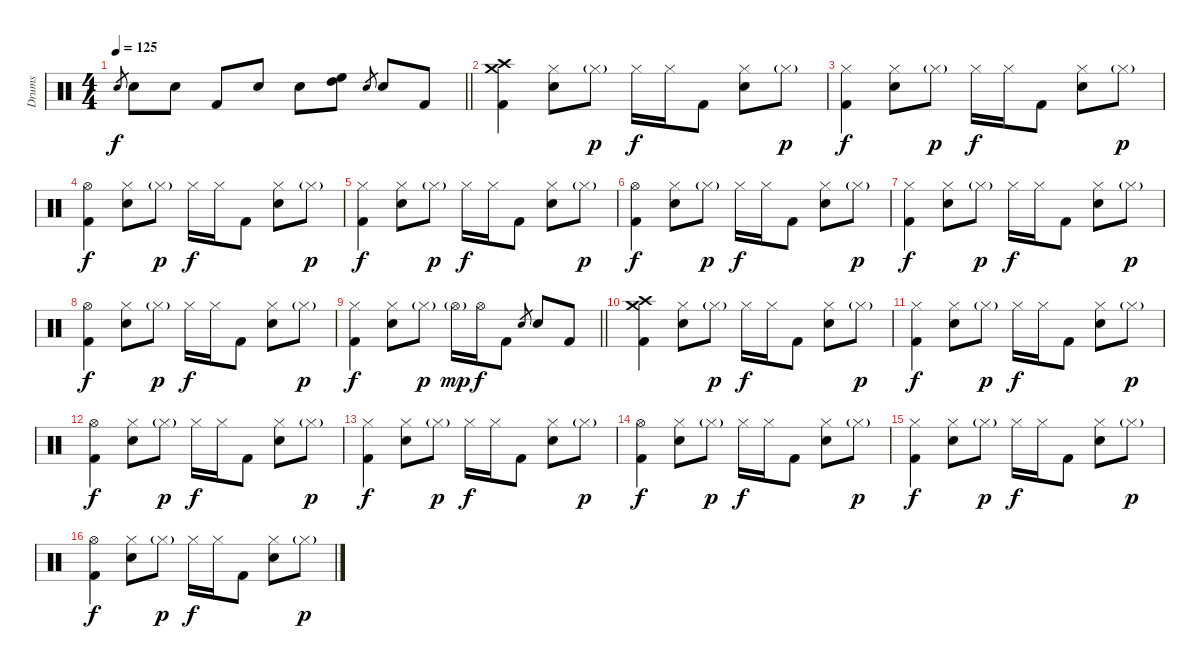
\track ("Drums" "Drums") {instrument percussion}
\staff {score}
\articulation defaults
\ts (4 4)
\tempo 125
\clef neutral
\barLineRight lightlight
\ks c "Electric Snare (hit)".8{gr dy f} "Electric Snare (hit)".8 "Electric Snare (hit)".8 "Kick (hit) 2".8 "Electric Snare (hit)".8 "Electric Snare (hit)".8
("High Floor Tom (hit)" "High Tom (hit)").8 "Electric Snare (hit)".8{gr} "Electric Snare (hit)".8 "Kick (hit) 2".8 |
("Crash high (hit)" "Crash medium (hit)" "Kick (hit) 2").4 ("Hi-Hat (closed)" "Electric Snare (hit)").8 "Hi-Hat (closed)"{g}.8{dy p} "Hi-Hat (closed)".16{dy f} "Hi-Hat (closed)".16 "Kick (hit) 2".8 ("Hi-Hat (closed)" "Electric Snare (hit)").8 "Hi-Hat (closed)"{g}.8{dy p} |
("Hi-Hat (closed)" "Kick (hit) 2").4{dy f} ("Hi-Hat (closed)" "Electric Snare (hit)").8 "Hi-Hat (closed)"{g}.8{dy p} "Hi-Hat (closed)".16{dy f} "Hi-Hat (closed)".16 "Kick (hit) 2".8 ("Hi-Hat (closed)" "Electric Snare (hit)").8 "Hi-Hat (closed)"{g}.8{dy p} |
("Hi-Hat (open)" "Kick (hit) 2").4{dy f} ("Hi-Hat (closed)" "Electric Snare (hit)").8 "Hi-Hat (closed)"{g}.8{dy p} "Hi-Hat (closed)".16{dy f} "Hi-Hat (closed)".16 "Kick (hit) 2".8 ("Hi-Hat (closed)" "Electric Snare (hit)").8 "Hi-Hat (closed)"{g}.8{dy p} |
("Hi-Hat (closed)" "Kick (hit) 2").4{dy f} ("Hi-Hat (closed)" "Electric Snare (hit)").8 "Hi-Hat (closed)"{g}.8{dy p} "Hi-Hat (closed)".16{dy f} "Hi-Hat (closed)".16 "Kick (hit) 2".8 ("Hi-Hat (closed)" "Electric Snare (hit)").8 "Hi-Hat (closed)"{g}.8{dy p} |
("Hi-Hat (open)" "Kick (hit) 2").4{dy f} ("Hi-Hat (closed)" "Electric Snare (hit)").8 "Hi-Hat (closed)"{g}.8{dy p} "Hi-Hat (closed)".16{dy f} "Hi-Hat (closed)".16 "Kick (hit) 2".8 ("Hi-Hat (closed)" "Electric Snare (hit)").8 "Hi-Hat (closed)"{g}.8{dy p} |
("Hi-Hat (closed)" "Kick (hit) 2").4{dy f} ("Hi-Hat (closed)" "Electric Snare (hit)").8 "Hi-Hat (closed)"{g}.8{dy p} "Hi-Hat (closed)".16{dy f} "Hi-Hat (closed)".16 "Kick (hit) 2".8 ("Hi-Hat (closed)" "Electric Snare (hit)").8 "Hi-Hat (closed)"{g}.8{dy p} |
("Hi-Hat (open)" "Kick (hit) 2").4{dy f} ("Hi-Hat (closed)" "Electric Snare (hit)").8 "Hi-Hat (closed)"{g}.8{dy p} "Hi-Hat (closed)".16{dy f} "Hi-Hat (closed)".16 "Kick (hit) 2".8 ("Hi-Hat (closed)" "Electric Snare (hit)").8 "Hi-Hat (closed)"{g}.8{dy p} |
\barLineRight lightlight
("Hi-Hat (closed)" "Kick (hit) 2").4{dy f} ("Hi-Hat (closed)" "Electric Snare (hit)").8 "Hi-Hat (closed)"{g}.8{dy p} "Hi-Hat (open)"{g}.16{dy mp} "Hi-Hat (open)".16{dy f} "Kick (hit) 2".8 "Electric Snare (hit)".8{gr} "Electric Snare (hit)".8 "Kick (hit) 2".8 |
("Crash high (hit)" "Crash medium (hit)" "Kick (hit) 2").4 ("Hi-Hat (closed)" "Electric Snare (hit)").8 "Hi-Hat (closed)"{g}.8{dy p} "Hi-Hat (closed)".16{dy f} "Hi-Hat (closed)".16 "Kick (hit) 2".8 ("Hi-Hat (closed)" "Electric Snare (hit)").8 "Hi-Hat (closed)"{g}.8{dy p} |
("Hi-Hat (closed)" "Kick (hit) 2").4{dy f} ("Hi-Hat (closed)" "Electric Snare (hit)").8 "Hi-Hat (closed)"{g}.8{dy p} "Hi-Hat (closed)".16{dy f} "Hi-Hat (closed)".16 "Kick (hit) 2".8 ("Hi-Hat (closed)" "Electric Snare (hit)").8 "Hi-Hat (closed)"{g}.8{dy p} |
("Hi-Hat (open)" "Kick (hit) 2").4{dy f} ("Hi-Hat (closed)" "Electric Snare (hit)").8 "Hi-Hat (closed)"{g}.8{dy p} "Hi-Hat (closed)".16{dy f} "Hi-Hat (closed)".16 "Kick (hit) 2".8 ("Hi-Hat (closed)" "Electric Snare (hit)").8 "Hi-Hat (closed)"{g}.8{dy p} |
("Hi-Hat (closed)" "Kick (hit) 2").4{dy f} ("Hi-Hat (closed)" "Electric Snare (hit)").8 "Hi-Hat (closed)"{g}.8{dy p} "Hi-Hat (closed)".16{dy f} "Hi-Hat (closed)".16 "Kick (hit) 2".8 ("Hi-Hat (closed)" "Electric Snare (hit)").8 "Hi-Hat (closed)"{g}.8{dy p} |
("Hi-Hat (open)" "Kick (hit) 2").4{dy f} ("Hi-Hat (closed)" "Electric Snare (hit)").8 "Hi-Hat (closed)"{g}.8{dy p} "Hi-Hat (closed)".16{dy f} "Hi-Hat (closed)".16 "Kick (hit) 2".8 ("Hi-Hat (closed)" "Electric Snare (hit)").8 "Hi-Hat (closed)"{g}.8{dy p} |
("Hi-Hat (closed)" "Kick (hit) 2").4{dy f} ("Hi-Hat (closed)" "Electric Snare (hit)").8 "Hi-Hat (closed)"{g}.8{dy p} "Hi-Hat (closed)".16{dy f} "Hi-Hat (closed)".16 "Kick (hit) 2".8 ("Hi-Hat (closed)" "Electric Snare (hit)").8 "Hi-Hat (closed)"{g}.8{dy p} |
("Hi-Hat (open)" "Kick (hit) 2").4{dy f} ("Hi-Hat (closed)" "Electric Snare (hit)").8 "Hi-Hat (closed)"{g}.8{dy p} "Hi-Hat (closed)".16{dy f} "Hi-Hat (closed)".16 "Kick (hit) 2".8 ("Hi-Hat (closed)" "Electric Snare (hit)").8 "Hi-Hat (closed)"{g}.8{dy p}
